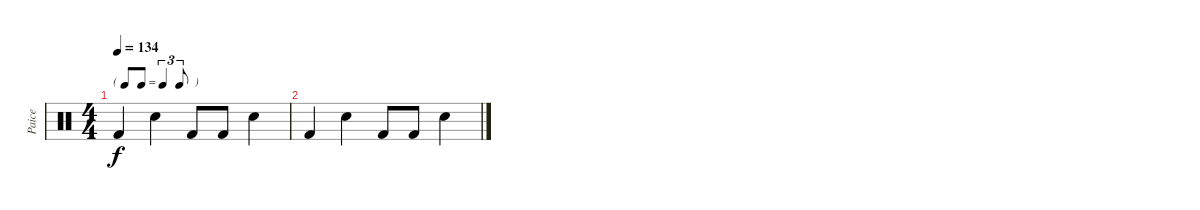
\track ("Paice" "Paice") {instrument percussion}
\staff {score}
\articulation defaults
\ts (4 4)
\tf triplet8th
\tempo 134
\clef neutral
\ks c "Kick (hit) 2".4{dy f} "Electric Snare (hit)".4 "Kick (hit) 2".8 "Kick (hit) 2".8 "Electric Snare (hit)".4
|
"Kick (hit) 2".4 "Electric Snare (hit)".4 "Kick (hit) 2".8 "Kick (hit) 2".8 "Electric Snare (hit)".4
